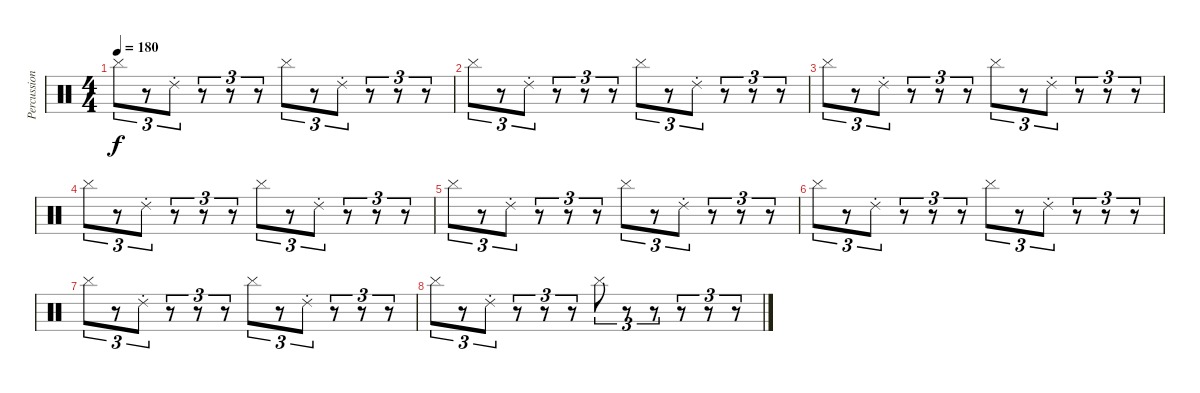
\track ("Percussions" "Percussion") {instrument percussion}
\staff {score}
\articulation defaults
\ts (4 4)
\tempo 180
\clef neutral
\ks c "Cymbal (hit)".8{tu (3 2) dy f}
r.8{tu (3 2)} "Ride (choke) 2".8{tu (3 2)} r.8{tu (3 2)} r.8{tu (3 2)} r.8{tu (3 2)} "Cymbal (hit)".8{tu (3 2)} r.8{tu (3 2)} "Ride (choke) 2".8{tu (3 2)} r.8{tu (3 2)} r.8{tu (3 2)} r.8{tu (3 2)} |
"Cymbal (hit)".8{tu (3 2)} r.8{tu (3 2)} "Ride (choke) 2".8{tu (3 2)} r.8{tu (3 2)} r.8{tu (3 2)} r.8{tu (3 2)} "Cymbal (hit)".8{tu (3 2)} r.8{tu (3 2)} "Ride (choke) 2".8{tu (3 2)} r.8{tu (3 2)} r.8{tu (3 2)} r.8{tu (3 2)} |
"Cymbal (hit)".8{tu (3 2)} r.8{tu (3 2)} "Ride (choke) 2".8{tu (3 2)} r.8{tu (3 2)} r.8{tu (3 2)} r.8{tu (3 2)} "Cymbal (hit)".8{tu (3 2)} r.8{tu (3 2)} "Ride (choke) 2".8{tu (3 2)} r.8{tu (3 2)} r.8{tu (3 2)} r.8{tu (3 2)} |
"Cymbal (hit)".8{tu (3 2)} r.8{tu (3 2)} "Ride (choke) 2".8{tu (3 2)} r.8{tu (3 2)} r.8{tu (3 2)} r.8{tu (3 2)} "Cymbal (hit)".8{tu (3 2)} r.8{tu (3 2)} "Ride (choke) 2".8{tu (3 2)} r.8{tu (3 2)} r.8{tu (3 2)} r.8{tu (3 2)} |
"Cymbal (hit)".8{tu (3 2)} r.8{tu (3 2)} "Ride (choke) 2".8{tu (3 2)} r.8{tu (3 2)} r.8{tu (3 2)} r.8{tu (3 2)} "Cymbal (hit)".8{tu (3 2)} r.8{tu (3 2)} "Ride (choke) 2".8{tu (3 2)} r.8{tu (3 2)} r.8{tu (3 2)} r.8{tu (3 2)} |
"Cymbal (hit)".8{tu (3 2)} r.8{tu (3 2)} "Ride (choke) 2".8{tu (3 2)} r.8{tu (3 2)} r.8{tu (3 2)} r.8{tu (3 2)} "Cymbal (hit)".8{tu (3 2)} r.8{tu (3 2)} "Ride (choke) 2".8{tu (3 2)} r.8{tu (3 2)} r.8{tu (3 2)} r.8{tu (3 2)} |
"Cymbal (hit)".8{tu (3 2)} r.8{tu (3 2)} "Ride (choke) 2".8{tu (3 2)} r.8{tu (3 2)} r.8{tu (3 2)} r.8{tu (3 2)} "Cymbal (hit)".8{tu (3 2)} r.8{tu (3 2)} "Ride (choke) 2".8{tu (3 2)} r.8{tu (3 2)} r.8{tu (3 2)} r.8{tu (3 2)} |
"Cymbal (hit)".8{tu (3 2)} r.8{tu (3 2)} "Ride (choke) 2".8{tu (3 2)} r.8{tu (3 2)} r.8{tu (3 2)} r.8{tu (3 2)} "Cymbal (hit)".8{tu (3 2)} r.8{tu (3 2)} r.8{tu (3 2)} r.8{tu (3 2)} r.8{tu (3 2)} r.8{tu (3 2)}
